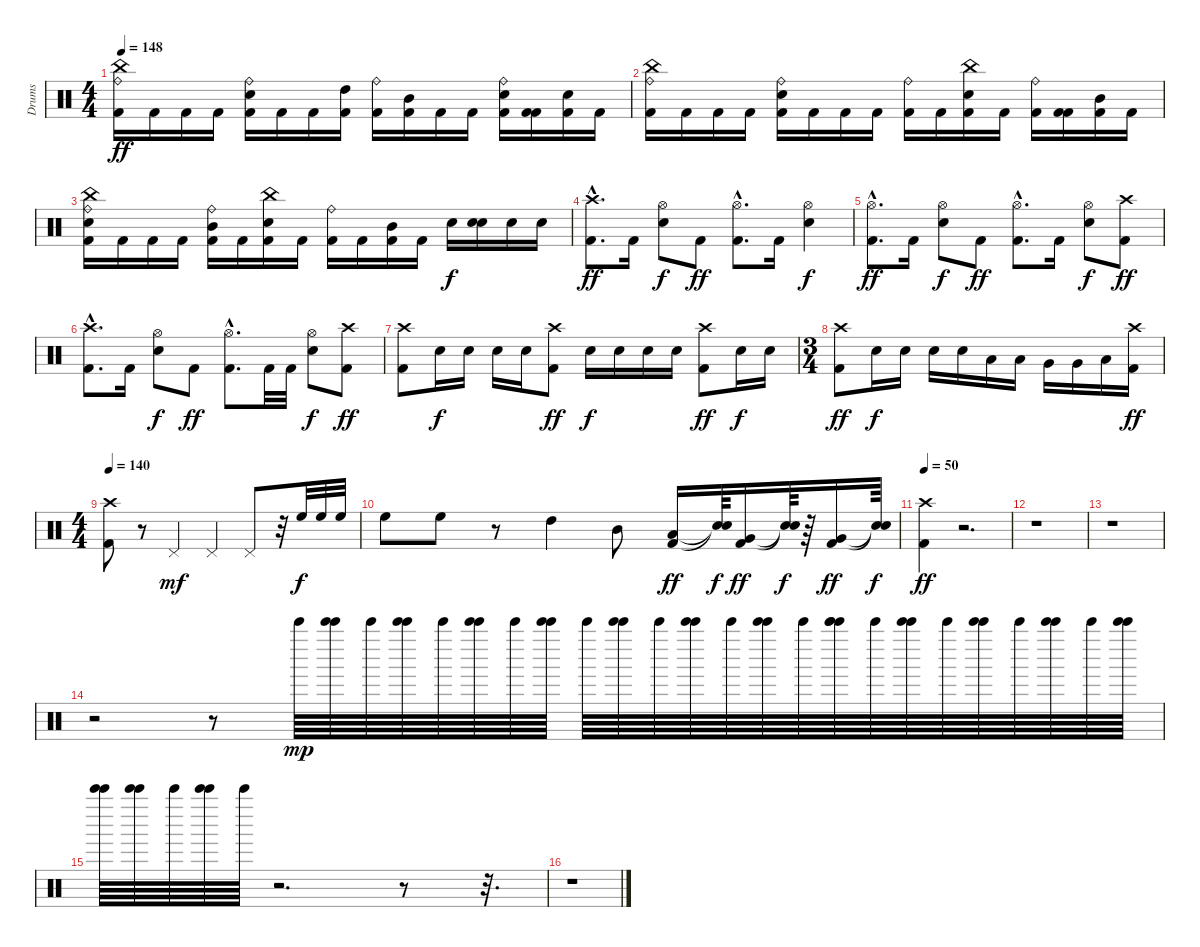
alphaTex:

\track ("Drums" "Drums") {instrument percussion}
\staff {score}
\articulation defaults
\ts (4 4)
\tempo 148
\clef neutral
\ks c
("Ride (bell)" "China (hit)" "Kick (hit) 2").16{dy ff} "Kick (hit) 2".16 "Kick (hit) 2".16 "Kick (hit) 2".16 ("Electric Snare (hit)" "Ride (bell)" "Kick (hit) 2").16 "Kick (hit) 2".16 "Kick (hit) 2".16 ("High Tom (hit)" "Kick (hit) 2").16 ("Ride (bell)" "Kick (hit) 2").16 ("Mid Tom (hit)" "Kick (hit) 2").16 "Kick (hit) 2".16 "Kick (hit) 2".16 ("Ride (bell)" "Electric Snare (hit)" "Kick (hit) 2").16 ("Kick (hit) 2" "Kick (hit) 2").16 ("Electric Snare (hit)" "Kick (hit) 2").16 "Kick (hit) 2".16 |
("Ride (bell)" "China (hit)" "Kick (hit) 2").16 "Kick (hit) 2".16 "Kick (hit) 2".16 "Kick (hit) 2".16 ("Electric Snare (hit)" "Ride (bell)" "Kick (hit) 2").16 "Kick (hit) 2".16 "Kick (hit) 2".16 "Kick (hit) 2".16 ("Ride (bell)" "Kick (hit) 2").16 "Kick (hit) 2".16 ("Electric Snare (hit)" "China (hit)" "Kick (hit) 2").16 "Kick (hit) 2".16 ("Ride (bell)" "Kick (hit) 2").16 ("Kick (hit) 2" "Kick (hit) 2").16 ("Mid Tom (hit)" "Kick (hit) 2").16 "Kick (hit) 2".16 |
("Ride (bell)" "China (hit)" "Electric Snare (hit)" "Kick (hit) 2").16 "Kick (hit) 2".16 "Kick (hit) 2".16 "Kick (hit) 2".16 ("Ride (bell)" "Mid Tom (hit)" "Kick (hit) 2").16 "Kick (hit) 2".16 ("China (hit)" "Electric Snare (hit)" "Kick (hit) 2").16 "Kick (hit) 2".16 ("Ride (bell)" "Kick (hit) 2").16 "Kick (hit) 2".16 ("Mid Tom (hit)" "Kick (hit) 2").16 "Kick (hit) 2".16 "Electric Snare (hit)".16{dy f} ("Electric Snare (hit)" "Electric Snare (hit)").16 "Electric Snare (hit)".16 "Electric Snare (hit)".16 |
("Crash high (hit)" "Kick (hit) 2"{hac}).8{d dy ff} "Kick (hit) 2".16 ("Electric Snare (hit)" "Hi-Hat (open)").8{dy f} "Kick (hit) 2".8{dy ff} ("Hi-Hat (open)" "Kick (hit) 2"{hac}).8{d} "Kick (hit) 2".16 ("Electric Snare (hit)" "Hi-Hat (open)").4{dy f} |
("Hi-Hat (open)" "Kick (hit) 2"{hac}).8{d dy ff} "Kick (hit) 2".16 ("Electric Snare (hit)" "Hi-Hat (open)").8{dy f} "Kick (hit) 2".8{dy ff} ("Hi-Hat (open)" "Kick (hit) 2"{hac}).8{d} "Kick (hit) 2".16 ("Electric Snare (hit)" "Hi-Hat (open)").8{dy f} ("Crash high (hit)" "Kick (hit) 2").8{dy ff} |
("Crash high (hit)" "Kick (hit) 2"{hac}).8{d} "Kick (hit) 2".16 ("Electric Snare (hit)" "Hi-Hat (open)").8{dy f} "Kick (hit) 2".8{dy ff} ("Hi-Hat (open)" "Kick (hit) 2"{hac}).8{d} "Kick (hit) 2".32 "Kick (hit) 2".32 ("Electric Snare (hit)" "Hi-Hat (open)").8{dy f} ("Crash high (hit)" "Kick (hit) 2").8{dy ff} |
("Crash high (hit)" "Kick (hit) 2").8 "Electric Snare (hit)".16{dy f} "Electric Snare (hit)".16 "Electric Snare (hit)".16 "Electric Snare (hit)".16 ("Crash high (hit)" "Kick (hit) 2").8{dy ff} "Electric Snare (hit)".16{dy f} "Electric Snare (hit)".16 "Electric Snare (hit)".16 "Electric Snare (hit)".16 ("Crash high (hit)" "Kick (hit) 2").8{dy ff} "Electric Snare (hit)".16{dy f} "Electric Snare (hit)".16 |
\ts (3 4)
("Crash high (hit)" "Kick (hit) 2").8{dy ff} "Electric Snare (hit)".16{dy f} "Electric Snare (hit)".16 "Electric Snare (hit)".16 "Electric Snare (hit)".16 "Low Tom (hit)".16 "Low Tom (hit)".16 "Very Low Tom (hit)".16 "Very Low Tom (hit)".16 "Low Floor Tom (hit)".16 ("Crash high (hit)" "Kick (hit) 2").16{dy ff} |
\ts (4 4)
\tempo 140
("Crash high (hit)" "Kick (hit) 2").8 r.8 "Pedal Hi-Hat (hit)".4{dy mf} "Pedal Hi-Hat (hit)".4 "Pedal Hi-Hat (hit)".8 r.32 "High Floor Tom (hit)".32{dy f} "High Floor Tom (hit)".32 "High Floor Tom (hit)".32 |
"High Floor Tom (hit)".8 "High Floor Tom (hit)".8 r.8 "High Tom (hit)".4 "Mid Tom (hit)".8 ("Low Tom (hit)" "Kick (hit) 2").16{dy ff} ("Snare (hit)"{t} "Snare (hit)"{t}).64{dy f} ("Very Low Tom (hit)" "Kick (hit) 2").16{dy ff} ("Snare (hit)"{t} "Snare (hit)"{t}).64{dy f} r.64 ("Very Low Tom (hit)" "Kick (hit) 2").16{dy ff} ("Snare (hit)"{t} "Snare (hit)"{t}).64{dy f} |
\tempo 50
("Crash high (hit)" "Kick (hit) 2").4{dy ff} r.2{d} |
r.1 |
r.1 |
r.2 r.8 "Bell Tree (hit)".64{dy mp} ("Bell Tree (hit)" "Bell Tree (hit)").64 "Bell Tree (hit)".64 ("Bell Tree (hit)" "Bell Tree (hit)").64 "Bell Tree (hit)".64 ("Bell Tree (hit)" "Bell Tree (hit)").64 "Bell Tree (hit)".64 ("Bell Tree (hit)" "Bell Tree (hit)").64 "Bell Tree (hit)".64 ("Bell Tree (hit)" "Bell Tree (hit)").64 "Bell Tree (hit)".64 ("Bell Tree (hit)" "Bell Tree (hit)").64 "Bell Tree (hit)".64 ("Bell Tree (hit)" "Bell Tree (hit)").64 "Bell Tree (hit)".64 ("Bell Tree (hit)" "Bell Tree (hit)" "Bell Tree (hit)").64 "Bell Tree (hit)".64 ("Bell Tree (hit)" "Bell Tree (hit)").64 "Bell Tree (hit)".64 ("Bell Tree (hit)" "Bell Tree (hit)").64 "Bell Tree (hit)".64 ("Bell Tree (hit)" "Bell Tree (hit)").64 "Bell Tree (hit)".64 ("Bell Tree (hit)" "Bell Tree (hit)").64 |
("Bell Tree (hit)" "Bell Tree (hit)").64 ("Bell Tree (hit)" "Bell Tree (hit)").64 "Bell Tree (hit)".64 ("Bell Tree (hit)" "Bell Tree (hit)").64 "Bell Tree (hit)".64 r.2{d} r.8 r.32{d} |
r.1
